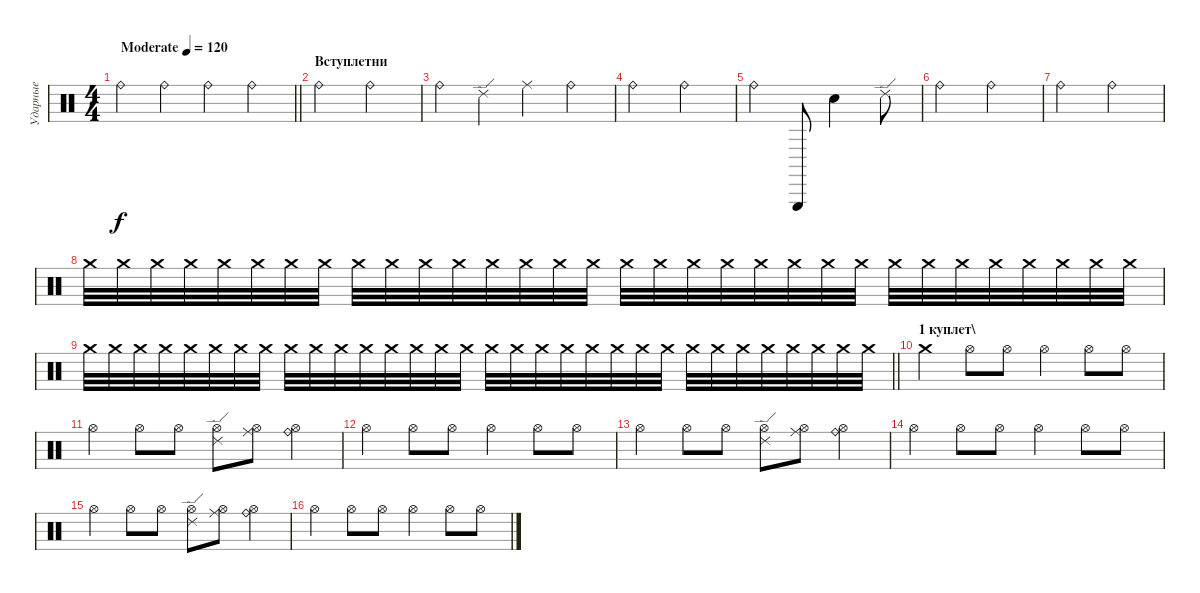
\track ("Ударные" "Ударные") {instrument percussion}
\staff {score}
\articulation defaults
\ts (4 4)
\tempo (120 "Moderate")
\clef neutral
\barLineRight lightlight
\ks c "Ride (bell)".4{dy f} "Ride (bell)".4 "Ride (bell)".4 "Ride (bell)".4
|
\section ("" "Вступлетни")
"Ride (bell)".2 "Ride (bell)".2 |
"Ride (bell)".4 "Ride (edge) 2".4 "Ride (middle)".4 "Ride (bell)".4 |
"Ride (bell)".2 "Ride (bell)".2 |
"Ride (bell)".4 "Triangle (hit)".8 "Metronome (bell)".2 "Ride (edge) 2".8 |
"Ride (bell)".2 "Ride (bell)".2 |
"Ride (bell)".2 "Ride (bell)".2 |
"Crash medium (hit)".32{volume 1} "Crash medium (hit)".32 "Crash medium (hit)".32 "Crash medium (hit)".32{volume 3} "Crash medium (hit)".32 "Crash medium (hit)".32 "Crash medium (hit)".32{volume 4} "Crash medium (hit)".32 "Crash medium (hit)".32 "Crash medium (hit)".32{volume 5} "Crash medium (hit)".32 "Crash medium (hit)".32 "Crash medium (hit)".32{volume 6} "Crash medium (hit)".32 "Crash medium (hit)".32 "Crash medium (hit)".32{volume 7} "Crash medium (hit)".32 "Crash medium (hit)".32 "Crash medium (hit)".32 "Crash medium (hit)".32{volume 7} "Crash medium (hit)".32 "Crash medium (hit)".32 "Crash medium (hit)".32 "Crash medium (hit)".32{volume 8} "Crash medium (hit)".32 "Crash medium (hit)".32 "Crash medium (hit)".32 "Crash medium (hit)".32{volume 9} "Crash medium (hit)".32 "Crash medium (hit)".32 "Crash medium (hit)".32 "Crash medium (hit)".32{volume 9} |
\barLineRight lightlight "Crash medium (hit)".32 "Crash medium (hit)".32 "Crash medium (hit)".32 "Crash medium (hit)".32{volume 10} "Crash medium (hit)".32 "Crash medium (hit)".32 "Crash medium (hit)".32 "Crash medium (hit)".32{volume 10} "Crash medium (hit)".32 "Crash medium (hit)".32 "Crash medium (hit)".32 "Crash medium (hit)".32{volume 13} "Crash medium (hit)".32 "Crash medium (hit)".32 "Crash medium (hit)".32 "Crash medium (hit)".32 "Crash medium (hit)".32 "Crash medium (hit)".32 "Crash medium (hit)".32{volume 10} "Crash medium (hit)".32 "Crash medium (hit)".32 "Crash medium (hit)".32 "Crash medium (hit)".32{volume 10} "Crash medium (hit)".32 "Crash medium (hit)".32 "Crash medium (hit)".32 "Crash medium (hit)".32{volume 13} "Crash medium (hit)".32 "Crash medium (hit)".32 "Crash medium (hit)".32 "Crash medium (hit)".32{volume 16} "Crash medium (hit)".32{volume 16}
|
\section ("" "1 куплет\\")
"Crash medium (hit)".4{volume 13} "Hi-Hat (open)".8 "Hi-Hat (open)".8 "Hi-Hat (open)".4 "Hi-Hat (open)".8 "Hi-Hat (open)".8 |
"Hi-Hat (open)".4 "Hi-Hat (open)".8 "Hi-Hat (open)".8 ("Hi-Hat (open)" "Ride (edge) 2").8 ("Hi-Hat (open)" "Ride (middle)").8 ("Hi-Hat (open)" "Ride (bell)").4 |
"Hi-Hat (open)".4 "Hi-Hat (open)".8 "Hi-Hat (open)".8 "Hi-Hat (open)".4 "Hi-Hat (open)".8 "Hi-Hat (open)".8 |
"Hi-Hat (open)".4 "Hi-Hat (open)".8 "Hi-Hat (open)".8 ("Hi-Hat (open)" "Ride (edge) 2").8 ("Hi-Hat (open)" "Ride (middle)").8 ("Hi-Hat (open)" "Ride (bell)").4 |
"Hi-Hat (open)".4 "Hi-Hat (open)".8 "Hi-Hat (open)".8 "Hi-Hat (open)".4 "Hi-Hat (open)".8 "Hi-Hat (open)".8 |
"Hi-Hat (open)".4 "Hi-Hat (open)".8 "Hi-Hat (open)".8 ("Hi-Hat (open)" "Ride (edge) 2").8 ("Hi-Hat (open)" "Ride (middle)").8 ("Hi-Hat (open)" "Ride (bell)").4 |
"Hi-Hat (open)".4 "Hi-Hat (open)".8 "Hi-Hat (open)".8 "Hi-Hat (open)".4 "Hi-Hat (open)".8 "Hi-Hat (open)".8
